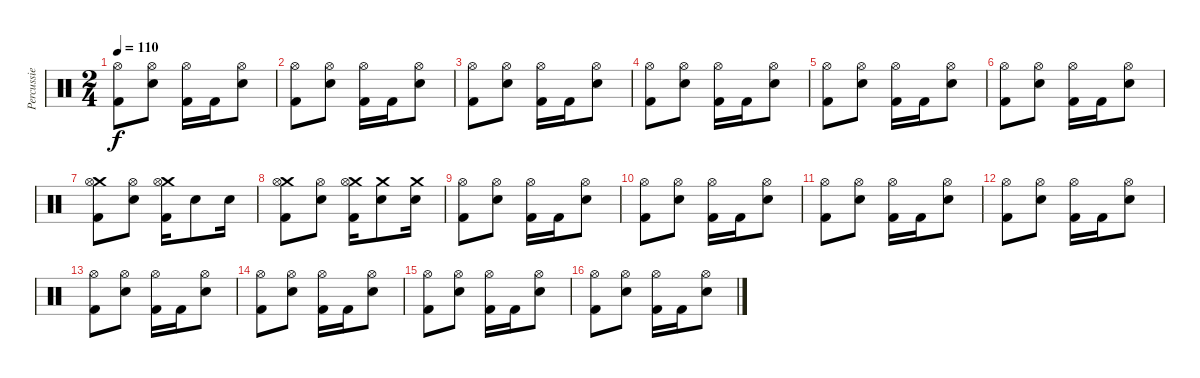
\track ("Percussie" "Percussie") {instrument percussion}
\staff {score}
\articulation defaults
\ts (2 4)
\tempo 110
\clef neutral
\ks c
("Hi-Hat (open)" "Kick (hit) 2").8{dy f} ("Hi-Hat (open)" "Electric Snare (hit)").8 ("Hi-Hat (open)" "Kick (hit) 2").16 "Kick (hit) 2".16 ("Hi-Hat (open)" "Electric Snare (hit)").8 |
("Hi-Hat (open)" "Kick (hit) 2").8 ("Hi-Hat (open)" "Electric Snare (hit)").8 ("Hi-Hat (open)" "Kick (hit) 2").16 "Kick (hit) 2".16 ("Hi-Hat (open)" "Electric Snare (hit)").8 |
("Hi-Hat (open)" "Kick (hit) 2").8 ("Hi-Hat (open)" "Electric Snare (hit)").8 ("Hi-Hat (open)" "Kick (hit) 2").16 "Kick (hit) 2".16 ("Hi-Hat (open)" "Electric Snare (hit)").8 |
("Hi-Hat (open)" "Kick (hit) 2").8 ("Hi-Hat (open)" "Electric Snare (hit)").8 ("Hi-Hat (open)" "Kick (hit) 2").16 "Kick (hit) 2".16 ("Hi-Hat (open)" "Electric Snare (hit)").8 |
("Hi-Hat (open)" "Kick (hit) 2").8 ("Hi-Hat (open)" "Electric Snare (hit)").8 ("Hi-Hat (open)" "Kick (hit) 2").16 "Kick (hit) 2".16 ("Hi-Hat (open)" "Electric Snare (hit)").8 |
("Hi-Hat (open)" "Kick (hit) 2").8 ("Hi-Hat (open)" "Electric Snare (hit)").8 ("Hi-Hat (open)" "Kick (hit) 2").16 "Kick (hit) 2".16 ("Hi-Hat (open)" "Electric Snare (hit)").8 |
("Crash medium (hit)" "Hi-Hat (open)" "Kick (hit) 2").8 ("Hi-Hat (open)" "Electric Snare (hit)").8 ("Crash medium (hit)" "Hi-Hat (open)" "Kick (hit) 2").16 "Electric Snare (hit)".8 "Electric Snare (hit)".16 |
("Crash medium (hit)" "Hi-Hat (open)" "Kick (hit) 2").8 ("Hi-Hat (open)" "Electric Snare (hit)").8 ("Crash medium (hit)" "Hi-Hat (open)" "Kick (hit) 2").16 ("Crash medium (hit)" "Electric Snare (hit)").8 ("Crash medium (hit)" "Electric Snare (hit)").16 |
("Hi-Hat (open)" "Kick (hit) 2").8 ("Hi-Hat (open)" "Electric Snare (hit)").8 ("Hi-Hat (open)" "Kick (hit) 2").16 "Kick (hit) 2".16 ("Hi-Hat (open)" "Electric Snare (hit)").8 |
("Hi-Hat (open)" "Kick (hit) 2").8 ("Hi-Hat (open)" "Electric Snare (hit)").8 ("Hi-Hat (open)" "Kick (hit) 2").16 "Kick (hit) 2".16 ("Hi-Hat (open)" "Electric Snare (hit)").8 |
("Hi-Hat (open)" "Kick (hit) 2").8 ("Hi-Hat (open)" "Electric Snare (hit)").8 ("Hi-Hat (open)" "Kick (hit) 2").16 "Kick (hit) 2".16 ("Hi-Hat (open)" "Electric Snare (hit)").8 |
("Hi-Hat (open)" "Kick (hit) 2").8 ("Hi-Hat (open)" "Electric Snare (hit)").8 ("Hi-Hat (open)" "Kick (hit) 2").16 "Kick (hit) 2".16 ("Hi-Hat (open)" "Electric Snare (hit)").8 |
("Hi-Hat (open)" "Kick (hit) 2").8 ("Hi-Hat (open)" "Electric Snare (hit)").8 ("Hi-Hat (open)" "Kick (hit) 2").16 "Kick (hit) 2".16 ("Hi-Hat (open)" "Electric Snare (hit)").8 |
("Hi-Hat (open)" "Kick (hit) 2").8 ("Hi-Hat (open)" "Electric Snare (hit)").8 ("Hi-Hat (open)" "Kick (hit) 2").16 "Kick (hit) 2".16 ("Hi-Hat (open)" "Electric Snare (hit)").8 |
("Hi-Hat (open)" "Kick (hit) 2").8 ("Hi-Hat (open)" "Electric Snare (hit)").8 ("Hi-Hat (open)" "Kick (hit) 2").16 "Kick (hit) 2".16 ("Hi-Hat (open)" "Electric Snare (hit)").8 |
("Hi-Hat (open)" "Kick (hit) 2").8 ("Hi-Hat (open)" "Electric Snare (hit)").8 ("Hi-Hat (open)" "Kick (hit) 2").16 "Kick (hit) 2".16 ("Hi-Hat (open)" "Electric Snare (hit)").8
